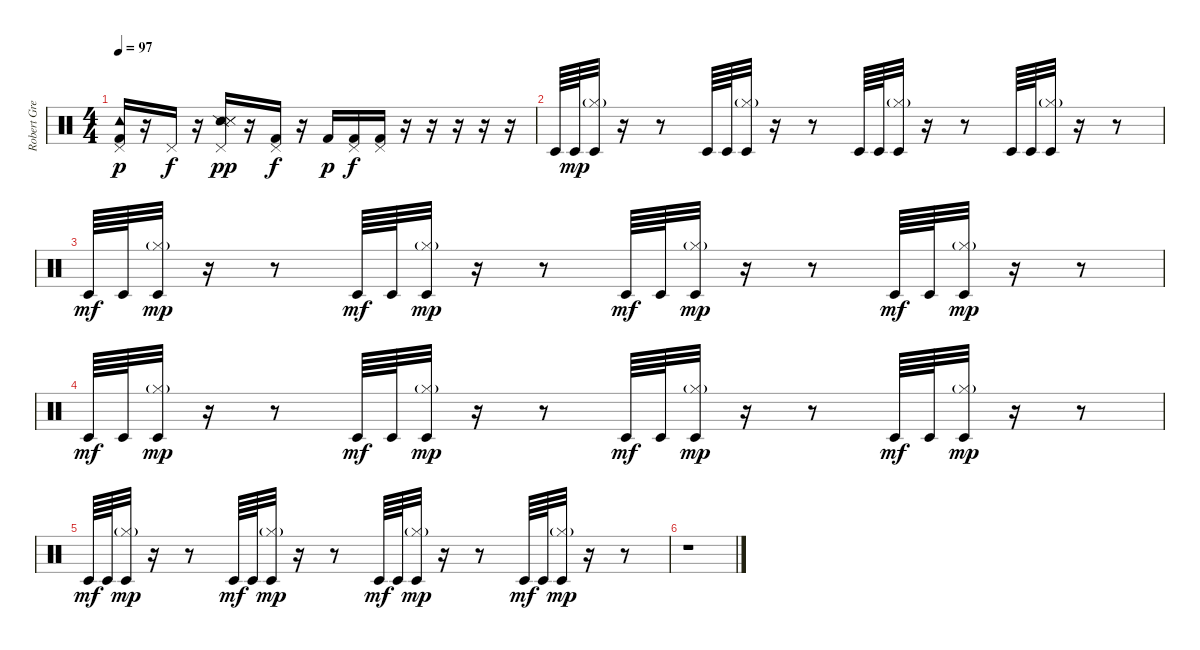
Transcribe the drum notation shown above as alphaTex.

\track ("Robert Gregory Bourdan/'Groop' sound" "Robert Gre") {instrument percussion}
\staff {score}
\articulation defaults
\ts (4 4)
\tempo 97
\clef neutral
\ks c
("Pedal Hi-Hat (hit)" "Tambourine (hit)" "Kick (hit) 2").16{dy p} r.16 "Pedal Hi-Hat (hit)".16{dy f} r.16 ("Pedal Hi-Hat (hit)" "Snare (side stick) 2" "Metronome (hit)" "Snare (side stick) 3").16{dy pp} r.16 ("Pedal Hi-Hat (hit)" "Kick (hit) 2").16{dy f} r.16 "Kick (hit) 2".16{dy p} ("Pedal Hi-Hat (hit)" "Kick (hit) 2").16{dy f} ("Pedal Hi-Hat (hit)" "Kick (hit) 2").16 r.16 r.16 r.16 r.16 r.16 |
"Timbale low (hit)".64{volume 11} "Timbale low (hit)".64{dy mp} ("Timbale low (hit)" "Hi-Hat (closed)"{g}).32 r.16 r.8 "Timbale low (hit)".64 "Timbale low (hit)".64 ("Timbale low (hit)" "Hi-Hat (closed)"{g}).32 r.16 r.8 "Timbale low (hit)".64 "Timbale low (hit)".64 ("Timbale low (hit)" "Hi-Hat (closed)"{g}).32 r.16 r.8 "Timbale low (hit)".64 "Timbale low (hit)".64 ("Timbale low (hit)" "Hi-Hat (closed)"{g}).32 r.16 r.8 |
"Timbale low (hit)".64{dy mf} "Timbale low (hit)".64 ("Timbale low (hit)" "Hi-Hat (closed)"{g}).32{dy mp} r.16 r.8 "Timbale low (hit)".64{dy mf} "Timbale low (hit)".64 ("Timbale low (hit)" "Hi-Hat (closed)"{g}).32{dy mp} r.16 r.8 "Timbale low (hit)".64{dy mf} "Timbale low (hit)".64 ("Timbale low (hit)" "Hi-Hat (closed)"{g}).32{dy mp} r.16 r.8 "Timbale low (hit)".64{dy mf} "Timbale low (hit)".64 ("Timbale low (hit)" "Hi-Hat (closed)"{g}).32{dy mp} r.16 r.8 |
"Timbale low (hit)".64{dy mf} "Timbale low (hit)".64 ("Timbale low (hit)" "Hi-Hat (closed)"{g}).32{dy mp} r.16 r.8 "Timbale low (hit)".64{dy mf} "Timbale low (hit)".64 ("Timbale low (hit)" "Hi-Hat (closed)"{g}).32{dy mp} r.16 r.8 "Timbale low (hit)".64{dy mf volume 0} "Timbale low (hit)".64 ("Timbale low (hit)" "Hi-Hat (closed)"{g}).32{dy mp} r.16 r.8 "Timbale low (hit)".64{dy mf} "Timbale low (hit)".64 ("Timbale low (hit)" "Hi-Hat (closed)"{g}).32{dy mp} r.16 r.8 |
"Timbale low (hit)".64{dy mf} "Timbale low (hit)".64 ("Timbale low (hit)" "Hi-Hat (closed)"{g}).32{dy mp} r.16 r.8 "Timbale low (hit)".64{dy mf} "Timbale low (hit)".64 ("Timbale low (hit)" "Hi-Hat (closed)"{g}).32{dy mp} r.16 r.8 "Timbale low (hit)".64{dy mf} "Timbale low (hit)".64 ("Timbale low (hit)" "Hi-Hat (closed)"{g}).32{dy mp} r.16 r.8 "Timbale low (hit)".64{dy mf} "Timbale low (hit)".64 ("Timbale low (hit)" "Hi-Hat (closed)"{g}).32{dy mp} r.16 r.8 |
r.1
